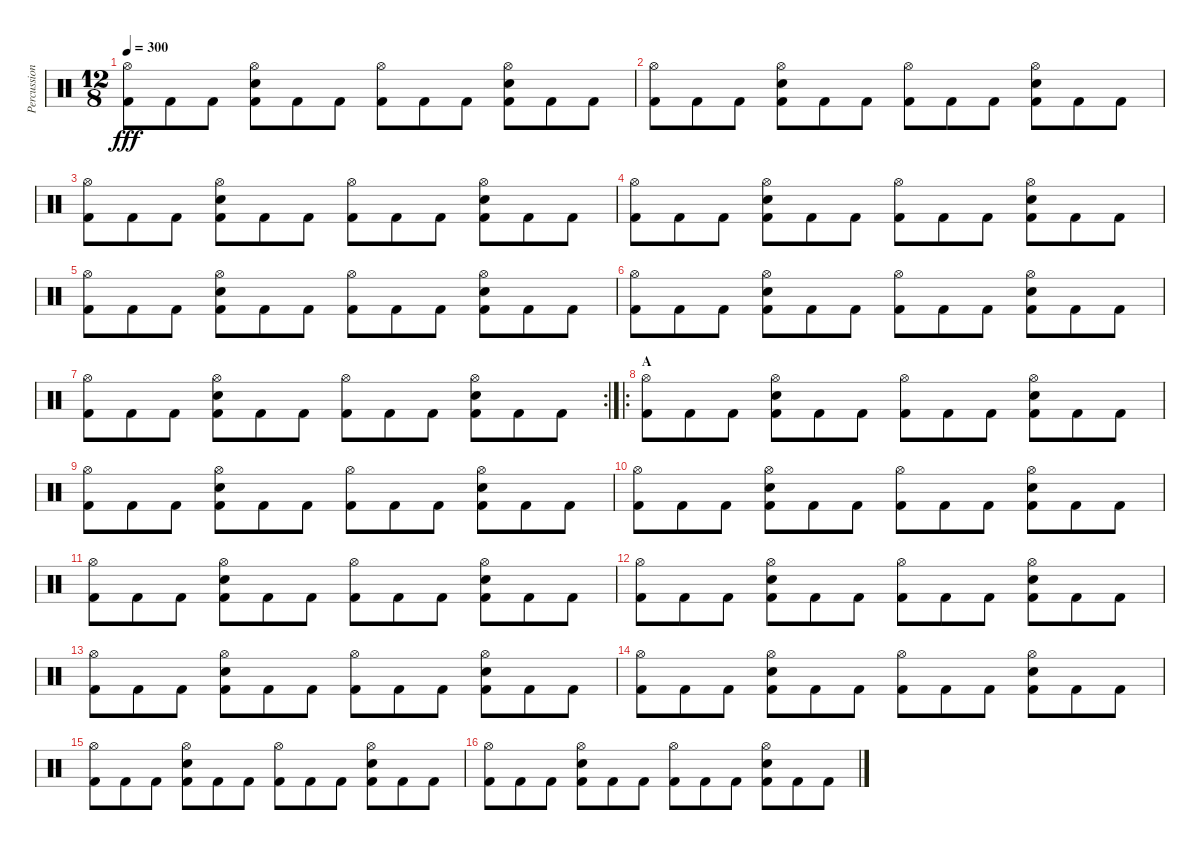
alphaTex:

\track ("Percussion" "Percussion") {instrument percussion}
\staff {score}
\articulation defaults
\ts (12 8)
\tempo 300
\clef neutral
\ks c
("Hi-Hat (open)" "Kick (hit) 2").8{dy fff} "Kick (hit) 2".8 "Kick (hit) 2".8 ("Hi-Hat (open)" "Snare (hit) 2" "Kick (hit) 2").8 "Kick (hit) 2".8 "Kick (hit) 2".8 ("Hi-Hat (open)" "Kick (hit) 2").8 "Kick (hit) 2".8 "Kick (hit) 2".8 ("Hi-Hat (open)" "Snare (hit) 2" "Kick (hit) 2").8 "Kick (hit) 2".8 "Kick (hit) 2".8 |
("Hi-Hat (open)" "Kick (hit) 2").8 "Kick (hit) 2".8 "Kick (hit) 2".8 ("Hi-Hat (open)" "Snare (hit) 2" "Kick (hit) 2").8 "Kick (hit) 2".8 "Kick (hit) 2".8 ("Hi-Hat (open)" "Kick (hit) 2").8 "Kick (hit) 2".8 "Kick (hit) 2".8 ("Hi-Hat (open)" "Snare (hit) 2" "Kick (hit) 2").8 "Kick (hit) 2".8 "Kick (hit) 2".8 |
("Hi-Hat (open)" "Kick (hit) 2").8 "Kick (hit) 2".8 "Kick (hit) 2".8 ("Hi-Hat (open)" "Snare (hit) 2" "Kick (hit) 2").8 "Kick (hit) 2".8 "Kick (hit) 2".8 ("Hi-Hat (open)" "Kick (hit) 2").8 "Kick (hit) 2".8 "Kick (hit) 2".8 ("Hi-Hat (open)" "Snare (hit) 2" "Kick (hit) 2").8 "Kick (hit) 2".8 "Kick (hit) 2".8 |
("Hi-Hat (open)" "Kick (hit) 2").8 "Kick (hit) 2".8 "Kick (hit) 2".8 ("Hi-Hat (open)" "Snare (hit) 2" "Kick (hit) 2").8 "Kick (hit) 2".8 "Kick (hit) 2".8 ("Hi-Hat (open)" "Kick (hit) 2").8 "Kick (hit) 2".8 "Kick (hit) 2".8 ("Hi-Hat (open)" "Snare (hit) 2" "Kick (hit) 2").8 "Kick (hit) 2".8 "Kick (hit) 2".8 |
("Hi-Hat (open)" "Kick (hit) 2").8 "Kick (hit) 2".8 "Kick (hit) 2".8 ("Hi-Hat (open)" "Snare (hit) 2" "Kick (hit) 2").8 "Kick (hit) 2".8 "Kick (hit) 2".8 ("Hi-Hat (open)" "Kick (hit) 2").8 "Kick (hit) 2".8 "Kick (hit) 2".8 ("Hi-Hat (open)" "Snare (hit) 2" "Kick (hit) 2").8 "Kick (hit) 2".8 "Kick (hit) 2".8 |
("Hi-Hat (open)" "Kick (hit) 2").8 "Kick (hit) 2".8 "Kick (hit) 2".8 ("Hi-Hat (open)" "Snare (hit) 2" "Kick (hit) 2").8 "Kick (hit) 2".8 "Kick (hit) 2".8 ("Hi-Hat (open)" "Kick (hit) 2").8 "Kick (hit) 2".8 "Kick (hit) 2".8 ("Hi-Hat (open)" "Snare (hit) 2" "Kick (hit) 2").8 "Kick (hit) 2".8 "Kick (hit) 2".8 |
\rc 2
("Hi-Hat (open)" "Kick (hit) 2").8 "Kick (hit) 2".8 "Kick (hit) 2".8 ("Hi-Hat (open)" "Snare (hit) 2" "Kick (hit) 2").8 "Kick (hit) 2".8 "Kick (hit) 2".8 ("Hi-Hat (open)" "Kick (hit) 2").8 "Kick (hit) 2".8 "Kick (hit) 2".8 ("Hi-Hat (open)" "Snare (hit) 2" "Kick (hit) 2").8 "Kick (hit) 2".8 "Kick (hit) 2".8 |
\ro
\section ("" "A")
("Hi-Hat (open)" "Kick (hit) 2").8 "Kick (hit) 2".8 "Kick (hit) 2".8 ("Hi-Hat (open)" "Snare (hit) 2" "Kick (hit) 2").8 "Kick (hit) 2".8 "Kick (hit) 2".8 ("Hi-Hat (open)" "Kick (hit) 2").8 "Kick (hit) 2".8 "Kick (hit) 2".8 ("Hi-Hat (open)" "Snare (hit) 2" "Kick (hit) 2").8 "Kick (hit) 2".8 "Kick (hit) 2".8 |
("Hi-Hat (open)" "Kick (hit) 2").8 "Kick (hit) 2".8 "Kick (hit) 2".8 ("Hi-Hat (open)" "Snare (hit) 2" "Kick (hit) 2").8 "Kick (hit) 2".8 "Kick (hit) 2".8 ("Hi-Hat (open)" "Kick (hit) 2").8 "Kick (hit) 2".8 "Kick (hit) 2".8 ("Hi-Hat (open)" "Snare (hit) 2" "Kick (hit) 2").8 "Kick (hit) 2".8 "Kick (hit) 2".8 |
("Hi-Hat (open)" "Kick (hit) 2").8 "Kick (hit) 2".8 "Kick (hit) 2".8 ("Hi-Hat (open)" "Snare (hit) 2" "Kick (hit) 2").8 "Kick (hit) 2".8 "Kick (hit) 2".8 ("Hi-Hat (open)" "Kick (hit) 2").8 "Kick (hit) 2".8 "Kick (hit) 2".8 ("Hi-Hat (open)" "Snare (hit) 2" "Kick (hit) 2").8 "Kick (hit) 2".8 "Kick (hit) 2".8 |
("Hi-Hat (open)" "Kick (hit) 2").8 "Kick (hit) 2".8 "Kick (hit) 2".8 ("Hi-Hat (open)" "Snare (hit) 2" "Kick (hit) 2").8 "Kick (hit) 2".8 "Kick (hit) 2".8 ("Hi-Hat (open)" "Kick (hit) 2").8 "Kick (hit) 2".8 "Kick (hit) 2".8 ("Hi-Hat (open)" "Snare (hit) 2" "Kick (hit) 2").8 "Kick (hit) 2".8 "Kick (hit) 2".8 |
("Hi-Hat (open)" "Kick (hit) 2").8 "Kick (hit) 2".8 "Kick (hit) 2".8 ("Hi-Hat (open)" "Snare (hit) 2" "Kick (hit) 2").8 "Kick (hit) 2".8 "Kick (hit) 2".8 ("Hi-Hat (open)" "Kick (hit) 2").8 "Kick (hit) 2".8 "Kick (hit) 2".8 ("Hi-Hat (open)" "Snare (hit) 2" "Kick (hit) 2").8 "Kick (hit) 2".8 "Kick (hit) 2".8 |
("Hi-Hat (open)" "Kick (hit) 2").8 "Kick (hit) 2".8 "Kick (hit) 2".8 ("Hi-Hat (open)" "Snare (hit) 2" "Kick (hit) 2").8 "Kick (hit) 2".8 "Kick (hit) 2".8 ("Hi-Hat (open)" "Kick (hit) 2").8 "Kick (hit) 2".8 "Kick (hit) 2".8 ("Hi-Hat (open)" "Snare (hit) 2" "Kick (hit) 2").8 "Kick (hit) 2".8 "Kick (hit) 2".8 |
("Hi-Hat (open)" "Kick (hit) 2").8 "Kick (hit) 2".8 "Kick (hit) 2".8 ("Hi-Hat (open)" "Snare (hit) 2" "Kick (hit) 2").8 "Kick (hit) 2".8 "Kick (hit) 2".8 ("Hi-Hat (open)" "Kick (hit) 2").8 "Kick (hit) 2".8 "Kick (hit) 2".8 ("Hi-Hat (open)" "Snare (hit) 2" "Kick (hit) 2").8 "Kick (hit) 2".8 "Kick (hit) 2".8 |
("Hi-Hat (open)" "Kick (hit) 2").8 "Kick (hit) 2".8 "Kick (hit) 2".8 ("Hi-Hat (open)" "Snare (hit) 2" "Kick (hit) 2").8 "Kick (hit) 2".8 "Kick (hit) 2".8 ("Hi-Hat (open)" "Kick (hit) 2").8 "Kick (hit) 2".8 "Kick (hit) 2".8 ("Hi-Hat (open)" "Snare (hit) 2" "Kick (hit) 2").8 "Kick (hit) 2".8 "Kick (hit) 2".8 |
("Hi-Hat (open)" "Kick (hit) 2").8 "Kick (hit) 2".8 "Kick (hit) 2".8 ("Hi-Hat (open)" "Snare (hit) 2" "Kick (hit) 2").8 "Kick (hit) 2".8 "Kick (hit) 2".8 ("Hi-Hat (open)" "Kick (hit) 2").8 "Kick (hit) 2".8 "Kick (hit) 2".8 ("Hi-Hat (open)" "Snare (hit) 2" "Kick (hit) 2").8 "Kick (hit) 2".8 "Kick (hit) 2".8
